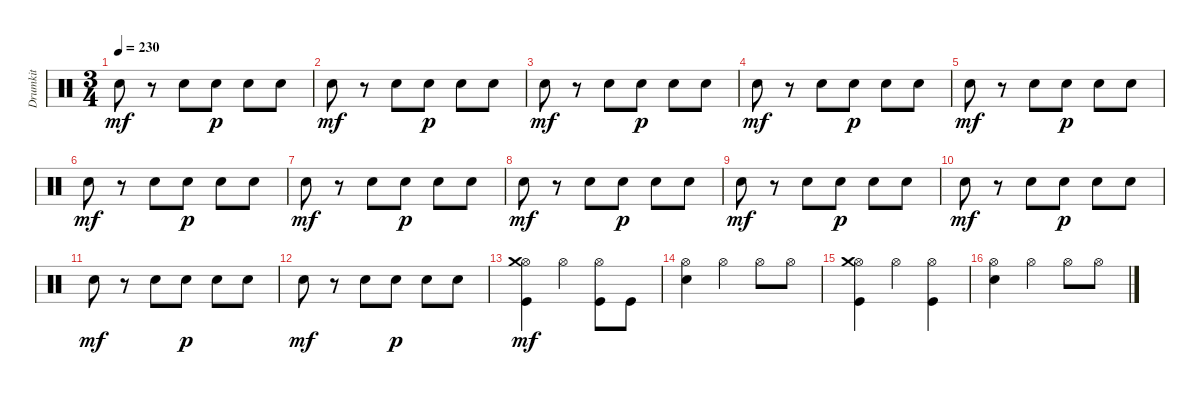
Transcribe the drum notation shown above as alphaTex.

\track ("Drumkit" "Drumkit") {instrument percussion}
\staff {score}
\articulation defaults
\ts (3 4)
\tempo 230
\clef neutral
\ks c "Snare (hit) 2".8{dy mf}
r.8 "Snare (hit) 2".8 "Snare (hit) 2".8{dy p} "Snare (hit) 2".8 "Snare (hit) 2".8 |
"Snare (hit) 2".8{dy mf} r.8 "Snare (hit) 2".8 "Snare (hit) 2".8{dy p} "Snare (hit) 2".8 "Snare (hit) 2".8 |
"Snare (hit) 2".8{dy mf} r.8 "Snare (hit) 2".8 "Snare (hit) 2".8{dy p} "Snare (hit) 2".8 "Snare (hit) 2".8 |
"Snare (hit) 2".8{dy mf} r.8 "Snare (hit) 2".8 "Snare (hit) 2".8{dy p} "Snare (hit) 2".8 "Snare (hit) 2".8 |
"Snare (hit) 2".8{dy mf} r.8 "Snare (hit) 2".8 "Snare (hit) 2".8{dy p} "Snare (hit) 2".8 "Snare (hit) 2".8 |
"Snare (hit) 2".8{dy mf} r.8 "Snare (hit) 2".8 "Snare (hit) 2".8{dy p} "Snare (hit) 2".8 "Snare (hit) 2".8 |
"Snare (hit) 2".8{dy mf} r.8 "Snare (hit) 2".8 "Snare (hit) 2".8{dy p} "Snare (hit) 2".8 "Snare (hit) 2".8 |
"Snare (hit) 2".8{dy mf} r.8 "Snare (hit) 2".8 "Snare (hit) 2".8{dy p} "Snare (hit) 2".8 "Snare (hit) 2".8 |
"Snare (hit) 2".8{dy mf} r.8 "Snare (hit) 2".8 "Snare (hit) 2".8{dy p} "Snare (hit) 2".8 "Snare (hit) 2".8 |
"Snare (hit) 2".8{dy mf} r.8 "Snare (hit) 2".8 "Snare (hit) 2".8{dy p} "Snare (hit) 2".8 "Snare (hit) 2".8 |
"Snare (hit) 2".8{dy mf} r.8 "Snare (hit) 2".8 "Snare (hit) 2".8{dy p} "Snare (hit) 2".8 "Snare (hit) 2".8 |
"Snare (hit) 2".8{dy mf} r.8 "Snare (hit) 2".8 "Snare (hit) 2".8{dy p} "Snare (hit) 2".8 "Snare (hit) 2".8 |
("Kick (hit)" "Hi-Hat (open)" "Crash medium (hit)").4{dy mf} "Hi-Hat (open)".4 ("Kick (hit)" "Hi-Hat (open)").8 "Kick (hit)".8 |
("Hi-Hat (open)" "Snare (hit) 2").4 "Hi-Hat (open)".4 "Hi-Hat (open)".8 "Hi-Hat (open)".8 |
("Kick (hit)" "Hi-Hat (open)" "Crash medium (hit)").4 "Hi-Hat (open)".4 ("Kick (hit)" "Hi-Hat (open)").4 |
("Hi-Hat (open)" "Snare (hit) 2").4 "Hi-Hat (open)".4 "Hi-Hat (open)".8 "Hi-Hat (open)".8
